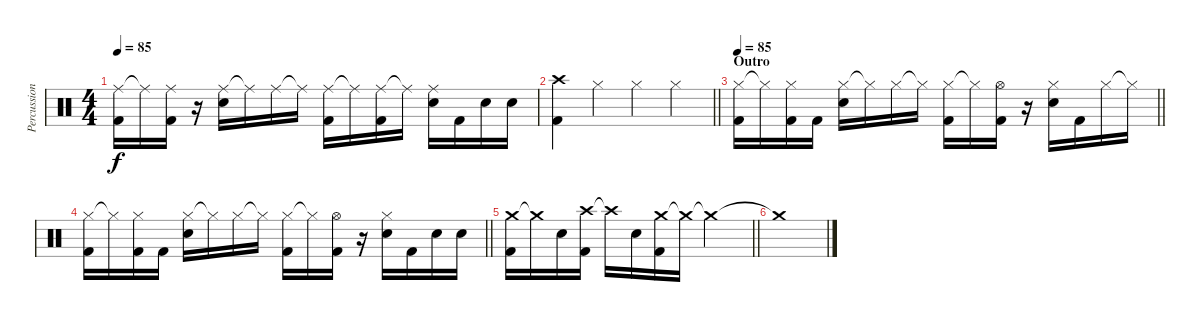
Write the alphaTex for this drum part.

\track ("Percussion" "Percussion") {instrument percussion}
\staff {score}
\articulation defaults
\ts (4 4)
\tempo 85
\clef neutral
\ks c
("Ride (middle)" "Kick (hit) 2").16{dy f} "Ride (middle)"{t}.16 ("Ride (middle)" "Kick (hit) 2").16 r.16 ("Ride (middle)" "Electric Snare (hit)").16 "Ride (middle)"{t}.16 "Ride (middle)".16 "Ride (middle)"{t}.16 ("Ride (middle)" "Kick (hit) 2").16 "Ride (middle)"{t}.16 ("Ride (middle)" "Kick (hit) 2").16 "Ride (middle)"{t}.16 ("Ride (middle)" "Electric Snare (hit)").16 "Kick (hit) 2".16 "Electric Snare (hit)".16 "Electric Snare (hit)".16 |
\barLineRight lightlight
("Crash high (hit)" "Kick (hit) 2").4 "Hi-Hat (closed)".4 "Hi-Hat (closed)".4 "Hi-Hat (closed)".4 |
\section ("" "Outro")
\tempo 85
\barLineRight lightlight
("Hi-Hat (closed)" "Kick (hit) 2").16 "Hi-Hat (closed)"{t}.16 ("Hi-Hat (closed)" "Kick (hit) 2").16 "Kick (hit) 2".16 ("Hi-Hat (closed)" "Electric Snare (hit)").16 "Hi-Hat (closed)"{t}.16 "Hi-Hat (closed)".16 "Hi-Hat (closed)"{t}.16 ("Hi-Hat (closed)" "Kick (hit) 2").16 "Hi-Hat (closed)"{t}.16 ("Hi-Hat (open)" "Kick (hit) 2").16 r.16 ("Hi-Hat (closed)" "Electric Snare (hit)").16 "Kick (hit) 2".16 "Hi-Hat (closed)".16 "Hi-Hat (closed)"{t}.16 |
\barLineRight lightlight
("Hi-Hat (closed)" "Kick (hit) 2").16 "Hi-Hat (closed)"{t}.16 ("Hi-Hat (closed)" "Kick (hit) 2").16 "Kick (hit) 2".16 ("Hi-Hat (closed)" "Electric Snare (hit)").16 "Hi-Hat (closed)"{t}.16 "Hi-Hat (closed)".16 "Hi-Hat (closed)"{t}.16 ("Hi-Hat (closed)" "Kick (hit) 2").16 "Hi-Hat (closed)"{t}.16 ("Hi-Hat (open)" "Kick (hit) 2").16 r.16 ("Hi-Hat (closed)" "Electric Snare (hit)").16 "Kick (hit) 2".16 "Electric Snare (hit)".16 "Electric Snare (hit)".16 |
\barLineRight lightlight
("Crash medium (hit)" "Kick (hit) 2").16 "Crash medium (hit)"{t}.16 "Electric Snare (hit)".16 ("Crash high (hit)" "Kick (hit) 2").16 "Crash high (hit)"{t}.16 "Electric Snare (hit)".16 ("Crash medium (hit)" "Kick (hit) 2").16 "Crash medium (hit)"{t}.16 "Crash medium (hit)"{t}.2 |
"Crash medium (hit)"{t}.1
